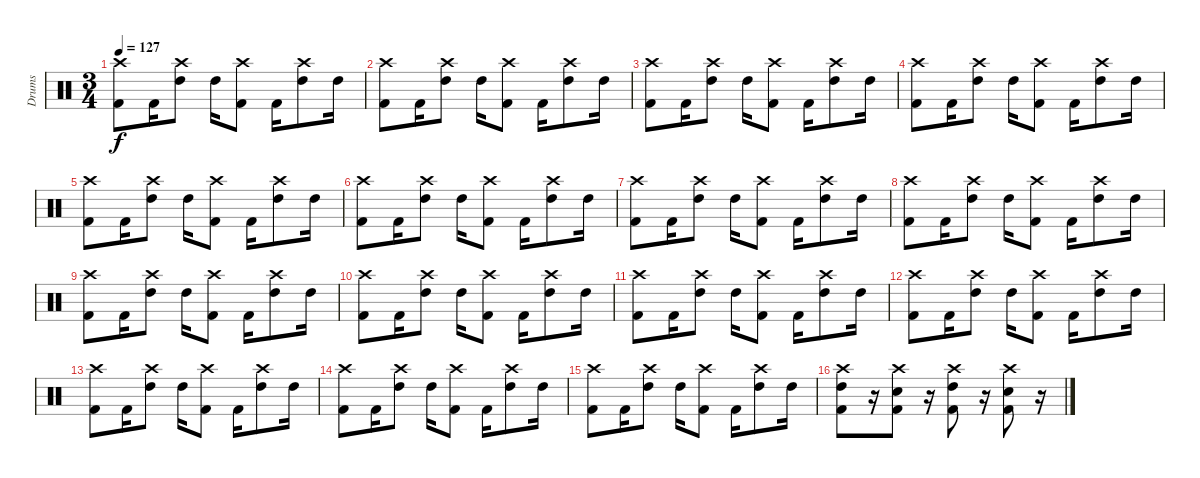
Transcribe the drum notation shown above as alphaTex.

\track ("Drums" "Drums") {instrument percussion}
\staff {score}
\articulation defaults
\ts (3 4)
\tempo 127
\clef neutral
\ks c
("Crash high (hit)" "Kick (hit) 2").8{dy f} "Kick (hit) 2".16 ("Crash high (hit)" "High Tom (hit)").8 "High Tom (hit)".16 ("Crash high (hit)" "Kick (hit) 2").8 "Kick (hit) 2".16 ("Crash high (hit)" "High Tom (hit)").8 "High Tom (hit)".16 |
("Crash high (hit)" "Kick (hit) 2").8 "Kick (hit) 2".16 ("Crash high (hit)" "High Tom (hit)").8 "High Tom (hit)".16 ("Crash high (hit)" "Kick (hit) 2").8 "Kick (hit) 2".16 ("Crash high (hit)" "High Tom (hit)").8 "High Tom (hit)".16 |
("Crash high (hit)" "Kick (hit) 2").8 "Kick (hit) 2".16 ("Crash high (hit)" "High Tom (hit)").8 "High Tom (hit)".16 ("Crash high (hit)" "Kick (hit) 2").8 "Kick (hit) 2".16 ("Crash high (hit)" "High Tom (hit)").8 "High Tom (hit)".16 |
("Crash high (hit)" "Kick (hit) 2").8 "Kick (hit) 2".16 ("Crash high (hit)" "High Tom (hit)").8 "High Tom (hit)".16 ("Crash high (hit)" "Kick (hit) 2").8 "Kick (hit) 2".16 ("Crash high (hit)" "High Tom (hit)").8 "High Tom (hit)".16 |
("Crash high (hit)" "Kick (hit) 2").8 "Kick (hit) 2".16 ("Crash high (hit)" "High Tom (hit)").8 "High Tom (hit)".16 ("Crash high (hit)" "Kick (hit) 2").8 "Kick (hit) 2".16 ("Crash high (hit)" "High Tom (hit)").8 "High Tom (hit)".16 |
("Crash high (hit)" "Kick (hit) 2").8 "Kick (hit) 2".16 ("Crash high (hit)" "High Tom (hit)").8 "High Tom (hit)".16 ("Crash high (hit)" "Kick (hit) 2").8 "Kick (hit) 2".16 ("Crash high (hit)" "High Tom (hit)").8 "High Tom (hit)".16 |
("Crash high (hit)" "Kick (hit) 2").8 "Kick (hit) 2".16 ("Crash high (hit)" "High Tom (hit)").8 "High Tom (hit)".16 ("Crash high (hit)" "Kick (hit) 2").8 "Kick (hit) 2".16 ("Crash high (hit)" "High Tom (hit)").8 "High Tom (hit)".16 |
("Crash high (hit)" "Kick (hit) 2").8 "Kick (hit) 2".16 ("Crash high (hit)" "High Tom (hit)").8 "High Tom (hit)".16 ("Crash high (hit)" "Kick (hit) 2").8 "Kick (hit) 2".16 ("Crash high (hit)" "High Tom (hit)").8 "High Tom (hit)".16 |
("Crash high (hit)" "Kick (hit) 2").8 "Kick (hit) 2".16 ("Crash high (hit)" "High Tom (hit)").8 "High Tom (hit)".16 ("Crash high (hit)" "Kick (hit) 2").8 "Kick (hit) 2".16 ("Crash high (hit)" "High Tom (hit)").8 "High Tom (hit)".16 |
("Crash high (hit)" "Kick (hit) 2").8 "Kick (hit) 2".16 ("Crash high (hit)" "High Tom (hit)").8 "High Tom (hit)".16 ("Crash high (hit)" "Kick (hit) 2").8 "Kick (hit) 2".16 ("Crash high (hit)" "High Tom (hit)").8 "High Tom (hit)".16 |
("Crash high (hit)" "Kick (hit) 2").8 "Kick (hit) 2".16 ("Crash high (hit)" "High Tom (hit)").8 "High Tom (hit)".16 ("Crash high (hit)" "Kick (hit) 2").8 "Kick (hit) 2".16 ("Crash high (hit)" "High Tom (hit)").8 "High Tom (hit)".16 |
("Crash high (hit)" "Kick (hit) 2").8 "Kick (hit) 2".16 ("Crash high (hit)" "High Tom (hit)").8 "High Tom (hit)".16 ("Crash high (hit)" "Kick (hit) 2").8 "Kick (hit) 2".16 ("Crash high (hit)" "High Tom (hit)").8 "High Tom (hit)".16 |
("Crash high (hit)" "Kick (hit) 2").8 "Kick (hit) 2".16 ("Crash high (hit)" "High Tom (hit)").8 "High Tom (hit)".16 ("Crash high (hit)" "Kick (hit) 2").8 "Kick (hit) 2".16 ("Crash high (hit)" "High Tom (hit)").8 "High Tom (hit)".16 |
("Crash high (hit)" "Kick (hit) 2").8 "Kick (hit) 2".16 ("Crash high (hit)" "High Tom (hit)").8 "High Tom (hit)".16 ("Crash high (hit)" "Kick (hit) 2").8 "Kick (hit) 2".16 ("Crash high (hit)" "High Tom (hit)").8 "High Tom (hit)".16 |
("Crash high (hit)" "Kick (hit) 2").8 "Kick (hit) 2".16 ("Crash high (hit)" "High Tom (hit)").8 "High Tom (hit)".16 ("Crash high (hit)" "Kick (hit) 2").8 "Kick (hit) 2".16 ("Crash high (hit)" "High Tom (hit)").8 "High Tom (hit)".16 |
("Crash high (hit)" "High Tom (hit)" "Kick (hit) 2").8 r.16 ("Crash high (hit)" "Electric Snare (hit)" "Kick (hit) 2").8 r.16 ("Crash high (hit)" "High Tom (hit)" "Kick (hit) 2").8 r.16 ("Crash high (hit)" "Electric Snare (hit)" "Kick (hit) 2").8 r.16
